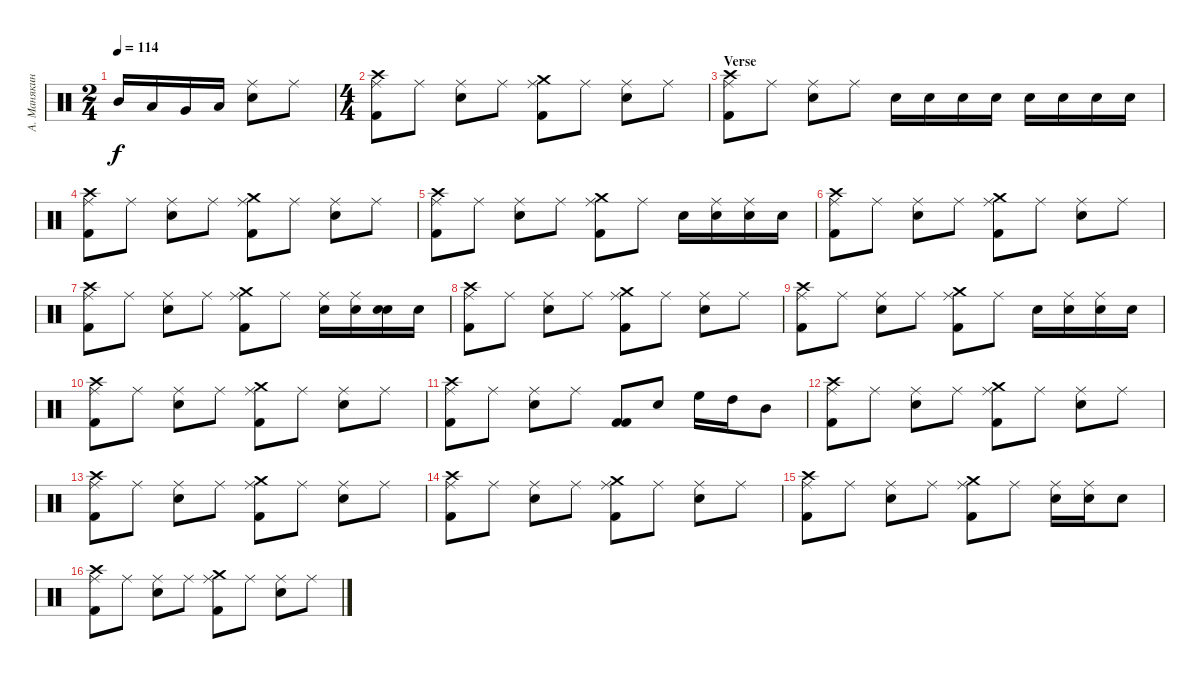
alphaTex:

\track ("А. Манякин" "А. Манякин") {instrument percussion}
\staff {score}
\articulation defaults
\ts (2 4)
\tempo 114
\clef neutral
\ks c "Mid Tom (hit)".16{dy f} "Low Tom (hit)".16 "Very Low Tom (hit)".16 "Low Floor Tom (hit)".16
("Electric Snare (hit)" "Ride (middle)").8 "Ride (middle)".8 |
\ts (4 4)
("Kick (hit) 2" "Crash high (hit)" "Ride (middle)").8 "Ride (middle)".8 ("Electric Snare (hit)" "Ride (middle)").8 "Ride (middle)".8 ("Kick (hit) 2" "Crash medium (hit)" "Ride (middle)").8 "Ride (middle)".8 ("Electric Snare (hit)" "Ride (middle)").8 "Ride (middle)".8 |
\section ("" "Verse")
("Kick (hit) 2" "Crash high (hit)" "Ride (middle)").8 "Ride (middle)".8 ("Electric Snare (hit)" "Ride (middle)").8 "Ride (middle)".8 "Electric Snare (hit)".16 "Electric Snare (hit)".16 "Electric Snare (hit)".16 "Electric Snare (hit)".16 "Electric Snare (hit)".16 "Electric Snare (hit)".16 "Electric Snare (hit)".16 "Electric Snare (hit)".16 |
("Kick (hit) 2" "Crash high (hit)" "Ride (middle)").8 "Ride (middle)".8 ("Electric Snare (hit)" "Ride (middle)").8 "Ride (middle)".8 ("Kick (hit) 2" "Crash medium (hit)" "Ride (middle)").8 "Ride (middle)".8 ("Electric Snare (hit)" "Ride (middle)").8 "Ride (middle)".8 |
("Kick (hit) 2" "Crash high (hit)" "Ride (middle)").8 "Ride (middle)".8 ("Electric Snare (hit)" "Ride (middle)").8 "Ride (middle)".8 ("Kick (hit) 2" "Crash medium (hit)" "Ride (middle)").8 "Ride (middle)".8 "Electric Snare (hit)".16 ("Electric Snare (hit)" "Ride (middle)").16 ("Electric Snare (hit)" "Ride (middle)").16 "Electric Snare (hit)".16 |
("Kick (hit) 2" "Crash high (hit)" "Ride (middle)").8 "Ride (middle)".8 ("Electric Snare (hit)" "Ride (middle)").8 "Ride (middle)".8 ("Kick (hit) 2" "Crash medium (hit)" "Ride (middle)").8 "Ride (middle)".8 ("Electric Snare (hit)" "Ride (middle)").8 "Ride (middle)".8 |
("Kick (hit) 2" "Crash high (hit)" "Ride (middle)").8 "Ride (middle)".8 ("Electric Snare (hit)" "Ride (middle)").8 "Ride (middle)".8 ("Kick (hit) 2" "Crash medium (hit)" "Ride (middle)").8 "Ride (middle)".8 ("Electric Snare (hit)" "Ride (middle)").16 ("Electric Snare (hit)" "Ride (middle)").16 ("Snare (hit)" "Electric Snare (hit)").16 "Electric Snare (hit)".16 |
("Kick (hit) 2" "Crash high (hit)" "Ride (middle)").8 "Ride (middle)".8 ("Electric Snare (hit)" "Ride (middle)").8 "Ride (middle)".8 ("Kick (hit) 2" "Crash medium (hit)" "Ride (middle)").8 "Ride (middle)".8 ("Electric Snare (hit)" "Ride (middle)").8 "Ride (middle)".8 |
("Kick (hit) 2" "Crash high (hit)" "Ride (middle)").8 "Ride (middle)".8 ("Electric Snare (hit)" "Ride (middle)").8 "Ride (middle)".8 ("Kick (hit) 2" "Crash medium (hit)" "Ride (middle)").8 "Ride (middle)".8 "Electric Snare (hit)".16 ("Electric Snare (hit)" "Ride (middle)").16 ("Electric Snare (hit)" "Ride (middle)").16 "Electric Snare (hit)".16 |
("Kick (hit) 2" "Crash high (hit)" "Ride (middle)").8 "Ride (middle)".8 ("Electric Snare (hit)" "Ride (middle)").8 "Ride (middle)".8 ("Kick (hit) 2" "Crash medium (hit)" "Ride (middle)").8 "Ride (middle)".8 ("Electric Snare (hit)" "Ride (middle)").8 "Ride (middle)".8 |
("Kick (hit) 2" "Crash high (hit)" "Ride (middle)").8 "Ride (middle)".8 ("Electric Snare (hit)" "Ride (middle)").8 "Ride (middle)".8 ("Kick (hit) 2" "Kick (hit) 2").8 "Electric Snare (hit)".8 "High Floor Tom (hit)".16 "High Tom (hit)".16 "Mid Tom (hit)".8 |
("Kick (hit) 2" "Crash high (hit)" "Ride (middle)").8 "Ride (middle)".8 ("Electric Snare (hit)" "Ride (middle)").8 "Ride (middle)".8 ("Kick (hit) 2" "Crash medium (hit)" "Ride (middle)").8 "Ride (middle)".8 ("Electric Snare (hit)" "Ride (middle)").8 "Ride (middle)".8 |
("Kick (hit) 2" "Crash high (hit)" "Ride (middle)").8 "Ride (middle)".8 ("Electric Snare (hit)" "Ride (middle)").8 "Ride (middle)".8 ("Kick (hit) 2" "Crash medium (hit)" "Ride (middle)").8 "Ride (middle)".8 ("Electric Snare (hit)" "Ride (middle)").8 "Ride (middle)".8 |
("Kick (hit) 2" "Crash high (hit)" "Ride (middle)").8 "Ride (middle)".8 ("Electric Snare (hit)" "Ride (middle)").8 "Ride (middle)".8 ("Kick (hit) 2" "Crash medium (hit)" "Ride (middle)").8 "Ride (middle)".8 ("Electric Snare (hit)" "Ride (middle)").8 "Ride (middle)".8 |
("Kick (hit) 2" "Crash high (hit)" "Ride (middle)").8 "Ride (middle)".8 ("Electric Snare (hit)" "Ride (middle)").8 "Ride (middle)".8 ("Kick (hit) 2" "Crash medium (hit)" "Ride (middle)").8 "Ride (middle)".8 ("Electric Snare (hit)" "Ride (middle)").16 ("Electric Snare (hit)" "Ride (middle)").16 "Electric Snare (hit)".8 |
("Kick (hit) 2" "Crash high (hit)" "Ride (middle)").8 "Ride (middle)".8 ("Electric Snare (hit)" "Ride (middle)").8 "Ride (middle)".8 ("Kick (hit) 2" "Crash medium (hit)" "Ride (middle)").8 "Ride (middle)".8 ("Electric Snare (hit)" "Ride (middle)").8 "Ride (middle)".8
